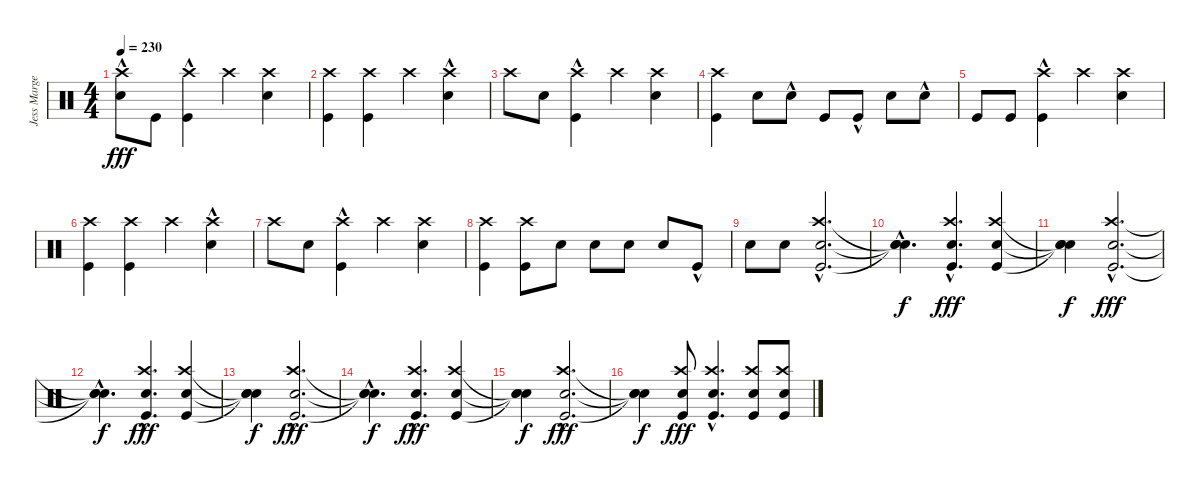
\track ("Jess Margera (drums)" "Jess Marge") {instrument percussion}
\staff {score}
\articulation defaults
\ts (4 4)
\tempo 230
\clef neutral
\ks c
("Snare (hit) 2"{hac} "Crash high (hit)").8{dy fff} "Kick (hit)".8 ("Kick (hit)"{hac} "Crash high (hit)").4 "Crash high (hit)".4 ("Snare (hit) 2" "Crash high (hit)").4 |
("Kick (hit)" "Crash high (hit)").4 ("Kick (hit)" "Crash high (hit)").4 "Crash high (hit)".4 ("Snare (hit) 2"{hac} "Crash high (hit)").4 |
"Crash high (hit)".8 "Snare (hit) 2".8 ("Kick (hit)"{hac} "Crash high (hit)").4 "Crash high (hit)".4 ("Snare (hit) 2" "Crash high (hit)").4 |
("Kick (hit)" "Crash high (hit)").4 "Snare (hit) 2".8 "Snare (hit) 2"{hac}.8 "Kick (hit)".8 "Kick (hit)"{hac}.8 "Snare (hit) 2".8 "Snare (hit) 2"{hac}.8 |
"Kick (hit)".8 "Kick (hit)".8 ("Kick (hit)"{hac} "Crash high (hit)").4 "Crash high (hit)".4 ("Snare (hit) 2" "Crash high (hit)").4 |
("Kick (hit)" "Crash high (hit)").4 ("Kick (hit)" "Crash high (hit)").4 "Crash high (hit)".4 ("Snare (hit) 2"{hac} "Crash high (hit)").4 |
"Crash high (hit)".8 "Snare (hit) 2".8 ("Kick (hit)"{hac} "Crash high (hit)").4 "Crash high (hit)".4 ("Snare (hit) 2" "Crash high (hit)").4 |
("Kick (hit)" "Crash high (hit)").4 ("Kick (hit)" "Crash high (hit)").8 "Snare (hit) 2".8 "Snare (hit) 2".8 "Snare (hit) 2".8 "Snare (hit) 2".8 "Kick (hit)"{hac}.8 |
"Snare (hit) 2".8 "Snare (hit) 2".8 ("Kick (hit)"{hac} "Snare (hit) 2"{hac} "Crash high (hit)"{hac}).2{d} |
("Snare (hit)"{hac t} "Snare (hit)"{hac t} "Snare (hit)"{hac t}).4{d dy f} ("Kick (hit)"{hac} "Snare (hit) 2"{hac} "Crash high (hit)"{hac}).4{d dy fff} ("Kick (hit)" "Snare (hit) 2" "Crash high (hit)").4 |
("Snare (hit)"{t} "Snare (hit)"{t} "Snare (hit)"{t}).4{dy f} ("Kick (hit)"{hac} "Snare (hit) 2"{hac} "Crash high (hit)"{hac}).2{d dy fff} |
("Snare (hit)"{hac t} "Snare (hit)"{hac t} "Snare (hit)"{hac t}).4{d dy f} ("Kick (hit)"{hac} "Snare (hit) 2"{hac} "Crash high (hit)"{hac}).4{d dy fff} ("Kick (hit)" "Snare (hit) 2" "Crash high (hit)").4 |
("Snare (hit)"{t} "Snare (hit)"{t} "Snare (hit)"{t}).4{dy f} ("Kick (hit)"{hac} "Snare (hit) 2"{hac} "Crash high (hit)"{hac}).2{d dy fff} |
("Snare (hit)"{hac t} "Snare (hit)"{hac t} "Snare (hit)"{hac t}).4{d dy f} ("Kick (hit)"{hac} "Snare (hit) 2"{hac} "Crash high (hit)"{hac}).4{d dy fff} ("Kick (hit)" "Snare (hit) 2" "Crash high (hit)").4 |
("Snare (hit)"{t} "Snare (hit)"{t} "Snare (hit)"{t}).4{dy f} ("Kick (hit)"{hac} "Snare (hit) 2"{hac} "Crash high (hit)"{hac}).2{d dy fff} |
("Snare (hit)"{t} "Snare (hit)"{t} "Snare (hit)"{t}).4{dy f} ("Kick (hit)" "Snare (hit) 2" "Crash high (hit)").8{dy fff} ("Kick (hit)"{hac} "Snare (hit) 2"{hac} "Crash high (hit)"{hac}).4{d} ("Kick (hit)" "Snare (hit) 2" "Crash high (hit)").8 ("Kick (hit)" "Snare (hit) 2" "Crash high (hit)").8
